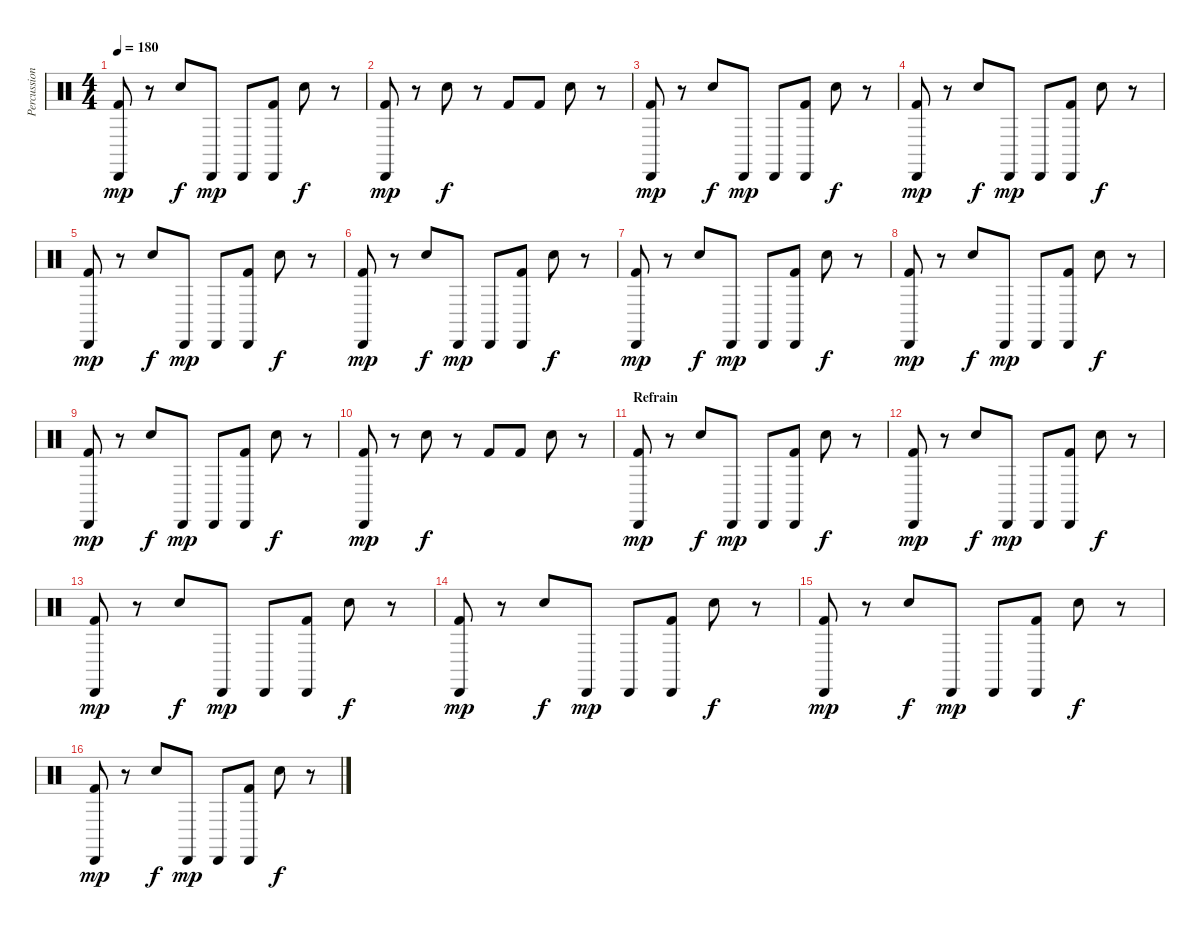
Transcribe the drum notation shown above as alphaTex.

\track ("Percussions" "Percussion") {instrument percussion}
\staff {score}
\articulation defaults
\ts (4 4)
\tempo 180
\clef neutral
\ks c
("Cabasa (hit)" "Kick (hit) 2").8{dy mp} r.8 "Electric Snare (hit)".8{dy f} "Cabasa (hit)".8{dy mp} "Cabasa (hit)".8 ("Cabasa (hit)" "Kick (hit) 2").8 "Electric Snare (hit)".8{dy f} r.8 |
("Cabasa (hit)" "Kick (hit) 2").8{dy mp} r.8 "Electric Snare (hit)".8{dy f} r.8 "Kick (hit) 2".8 "Kick (hit) 2".8 "Electric Snare (hit)".8 r.8 |
("Cabasa (hit)" "Kick (hit) 2").8{dy mp} r.8 "Electric Snare (hit)".8{dy f} "Cabasa (hit)".8{dy mp} "Cabasa (hit)".8 ("Cabasa (hit)" "Kick (hit) 2").8 "Electric Snare (hit)".8{dy f} r.8 |
("Cabasa (hit)" "Kick (hit) 2").8{dy mp} r.8 "Electric Snare (hit)".8{dy f} "Cabasa (hit)".8{dy mp} "Cabasa (hit)".8 ("Cabasa (hit)" "Kick (hit) 2").8 "Electric Snare (hit)".8{dy f} r.8 |
("Cabasa (hit)" "Kick (hit) 2").8{dy mp} r.8 "Electric Snare (hit)".8{dy f} "Cabasa (hit)".8{dy mp} "Cabasa (hit)".8 ("Cabasa (hit)" "Kick (hit) 2").8 "Electric Snare (hit)".8{dy f} r.8 |
("Cabasa (hit)" "Kick (hit) 2").8{dy mp} r.8 "Electric Snare (hit)".8{dy f} "Cabasa (hit)".8{dy mp} "Cabasa (hit)".8 ("Cabasa (hit)" "Kick (hit) 2").8 "Electric Snare (hit)".8{dy f} r.8 |
("Cabasa (hit)" "Kick (hit) 2").8{dy mp} r.8 "Electric Snare (hit)".8{dy f} "Cabasa (hit)".8{dy mp} "Cabasa (hit)".8 ("Cabasa (hit)" "Kick (hit) 2").8 "Electric Snare (hit)".8{dy f} r.8 |
("Cabasa (hit)" "Kick (hit) 2").8{dy mp} r.8 "Electric Snare (hit)".8{dy f} "Cabasa (hit)".8{dy mp} "Cabasa (hit)".8 ("Cabasa (hit)" "Kick (hit) 2").8 "Electric Snare (hit)".8{dy f} r.8 |
("Cabasa (hit)" "Kick (hit) 2").8{dy mp} r.8 "Electric Snare (hit)".8{dy f} "Cabasa (hit)".8{dy mp} "Cabasa (hit)".8 ("Cabasa (hit)" "Kick (hit) 2").8 "Electric Snare (hit)".8{dy f} r.8 |
("Cabasa (hit)" "Kick (hit) 2").8{dy mp} r.8 "Electric Snare (hit)".8{dy f} r.8 "Kick (hit) 2".8 "Kick (hit) 2".8 "Electric Snare (hit)".8 r.8 |
\section ("" "Refrain")
("Cabasa (hit)" "Kick (hit) 2").8{dy mp} r.8 "Electric Snare (hit)".8{dy f} "Cabasa (hit)".8{dy mp} "Cabasa (hit)".8 ("Cabasa (hit)" "Kick (hit) 2").8 "Electric Snare (hit)".8{dy f} r.8 |
("Cabasa (hit)" "Kick (hit) 2").8{dy mp} r.8 "Electric Snare (hit)".8{dy f} "Cabasa (hit)".8{dy mp} "Cabasa (hit)".8 ("Cabasa (hit)" "Kick (hit) 2").8 "Electric Snare (hit)".8{dy f} r.8 |
("Cabasa (hit)" "Kick (hit) 2").8{dy mp} r.8 "Electric Snare (hit)".8{dy f} "Cabasa (hit)".8{dy mp} "Cabasa (hit)".8 ("Cabasa (hit)" "Kick (hit) 2").8 "Electric Snare (hit)".8{dy f} r.8 |
("Cabasa (hit)" "Kick (hit) 2").8{dy mp} r.8 "Electric Snare (hit)".8{dy f} "Cabasa (hit)".8{dy mp} "Cabasa (hit)".8 ("Cabasa (hit)" "Kick (hit) 2").8 "Electric Snare (hit)".8{dy f} r.8 |
("Cabasa (hit)" "Kick (hit) 2").8{dy mp} r.8 "Electric Snare (hit)".8{dy f} "Cabasa (hit)".8{dy mp} "Cabasa (hit)".8 ("Cabasa (hit)" "Kick (hit) 2").8 "Electric Snare (hit)".8{dy f} r.8 |
("Cabasa (hit)" "Kick (hit) 2").8{dy mp} r.8 "Electric Snare (hit)".8{dy f} "Cabasa (hit)".8{dy mp} "Cabasa (hit)".8 ("Cabasa (hit)" "Kick (hit) 2").8 "Electric Snare (hit)".8{dy f} r.8
